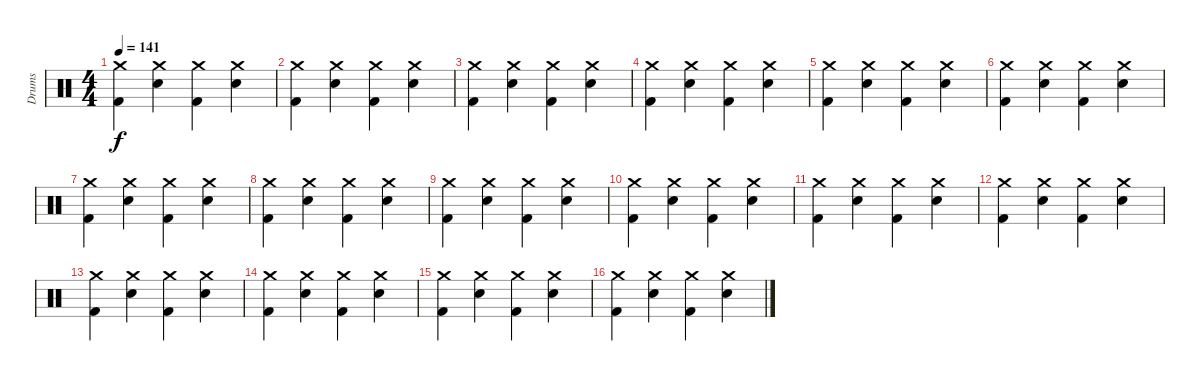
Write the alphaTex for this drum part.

\track ("Drums" "Drums") {instrument percussion}
\staff {score}
\articulation defaults
\ts (4 4)
\tempo 141
\clef neutral
\ks c
("Crash medium (hit)" "Kick (hit) 2").4{dy f} ("Crash medium (hit)" "Snare (hit) 2").4 ("Crash medium (hit)" "Kick (hit) 2").4 ("Crash medium (hit)" "Snare (hit) 2").4 |
("Crash medium (hit)" "Kick (hit) 2").4 ("Crash medium (hit)" "Snare (hit) 2").4 ("Crash medium (hit)" "Kick (hit) 2").4 ("Crash medium (hit)" "Snare (hit) 2").4 |
("Crash medium (hit)" "Kick (hit) 2").4 ("Crash medium (hit)" "Snare (hit) 2").4 ("Crash medium (hit)" "Kick (hit) 2").4 ("Crash medium (hit)" "Snare (hit) 2").4 |
("Crash medium (hit)" "Kick (hit) 2").4 ("Crash medium (hit)" "Snare (hit) 2").4 ("Crash medium (hit)" "Kick (hit) 2").4 ("Crash medium (hit)" "Snare (hit) 2").4 |
("Crash medium (hit)" "Kick (hit) 2").4 ("Crash medium (hit)" "Snare (hit) 2").4 ("Crash medium (hit)" "Kick (hit) 2").4 ("Crash medium (hit)" "Snare (hit) 2").4 |
("Crash medium (hit)" "Kick (hit) 2").4 ("Crash medium (hit)" "Snare (hit) 2").4 ("Crash medium (hit)" "Kick (hit) 2").4 ("Crash medium (hit)" "Snare (hit) 2").4 |
("Crash medium (hit)" "Kick (hit) 2").4 ("Crash medium (hit)" "Snare (hit) 2").4 ("Crash medium (hit)" "Kick (hit) 2").4 ("Crash medium (hit)" "Snare (hit) 2").4 |
("Crash medium (hit)" "Kick (hit) 2").4 ("Crash medium (hit)" "Snare (hit) 2").4 ("Crash medium (hit)" "Kick (hit) 2").4 ("Crash medium (hit)" "Snare (hit) 2").4 |
("Crash medium (hit)" "Kick (hit) 2").4 ("Crash medium (hit)" "Snare (hit) 2").4 ("Crash medium (hit)" "Kick (hit) 2").4 ("Crash medium (hit)" "Snare (hit) 2").4 |
("Crash medium (hit)" "Kick (hit) 2").4 ("Crash medium (hit)" "Snare (hit) 2").4 ("Crash medium (hit)" "Kick (hit) 2").4 ("Crash medium (hit)" "Snare (hit) 2").4 |
("Crash medium (hit)" "Kick (hit) 2").4 ("Crash medium (hit)" "Snare (hit) 2").4 ("Crash medium (hit)" "Kick (hit) 2").4 ("Crash medium (hit)" "Snare (hit) 2").4 |
("Crash medium (hit)" "Kick (hit) 2").4 ("Crash medium (hit)" "Snare (hit) 2").4 ("Crash medium (hit)" "Kick (hit) 2").4 ("Crash medium (hit)" "Snare (hit) 2").4 |
("Crash medium (hit)" "Kick (hit) 2").4 ("Crash medium (hit)" "Snare (hit) 2").4 ("Crash medium (hit)" "Kick (hit) 2").4 ("Crash medium (hit)" "Snare (hit) 2").4 |
("Crash medium (hit)" "Kick (hit) 2").4 ("Crash medium (hit)" "Snare (hit) 2").4 ("Crash medium (hit)" "Kick (hit) 2").4 ("Crash medium (hit)" "Snare (hit) 2").4 |
("Crash medium (hit)" "Kick (hit) 2").4 ("Crash medium (hit)" "Snare (hit) 2").4 ("Crash medium (hit)" "Kick (hit) 2").4 ("Crash medium (hit)" "Snare (hit) 2").4 |
("Crash medium (hit)" "Kick (hit) 2").4 ("Crash medium (hit)" "Snare (hit) 2").4 ("Crash medium (hit)" "Kick (hit) 2").4 ("Crash medium (hit)" "Snare (hit) 2").4
